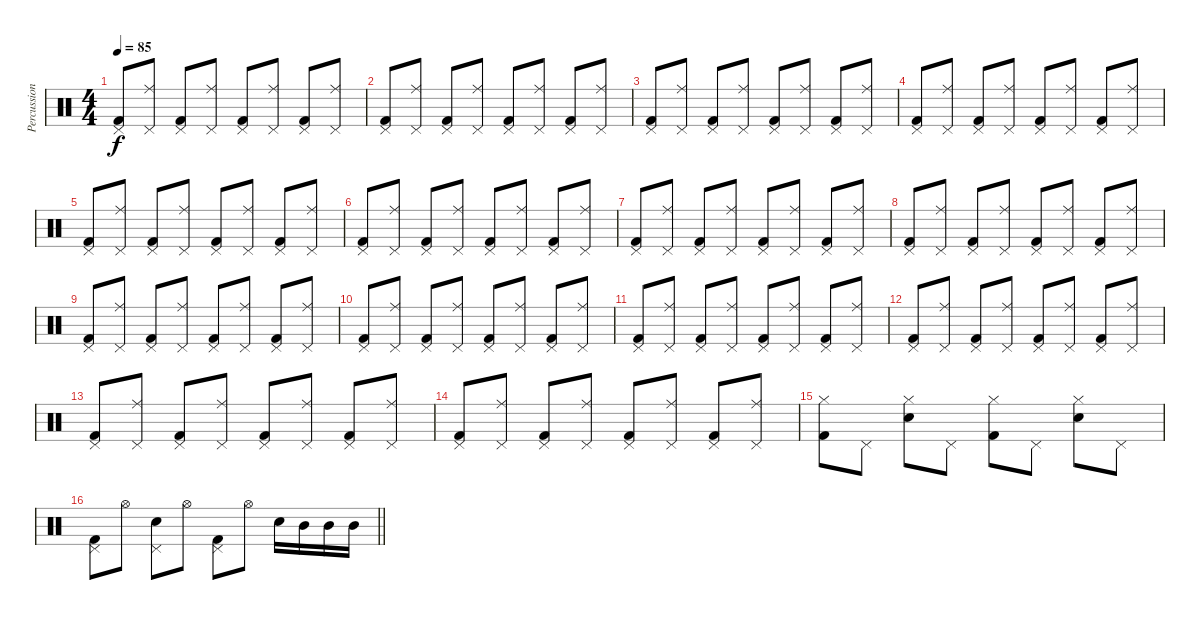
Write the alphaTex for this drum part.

\track ("Percussion" "Percussion") {instrument percussion}
\staff {score}
\articulation defaults
\ts (4 4)
\tempo 85
\clef neutral
\ks c
("Kick (hit) 2" "Pedal Hi-Hat (hit)").8{dy f} ("Pedal Hi-Hat (hit)" "Ride (middle)").8 ("Kick (hit) 2" "Pedal Hi-Hat (hit)").8 ("Pedal Hi-Hat (hit)" "Ride (middle)").8 ("Kick (hit) 2" "Pedal Hi-Hat (hit)").8 ("Pedal Hi-Hat (hit)" "Ride (middle)").8 ("Kick (hit) 2" "Pedal Hi-Hat (hit)").8 ("Pedal Hi-Hat (hit)" "Ride (middle)").8 |
("Kick (hit) 2" "Pedal Hi-Hat (hit)").8 ("Pedal Hi-Hat (hit)" "Ride (middle)").8 ("Kick (hit) 2" "Pedal Hi-Hat (hit)").8 ("Pedal Hi-Hat (hit)" "Ride (middle)").8 ("Kick (hit) 2" "Pedal Hi-Hat (hit)").8 ("Pedal Hi-Hat (hit)" "Ride (middle)").8 ("Kick (hit) 2" "Pedal Hi-Hat (hit)").8 ("Pedal Hi-Hat (hit)" "Ride (middle)").8 |
("Kick (hit) 2" "Pedal Hi-Hat (hit)").8 ("Pedal Hi-Hat (hit)" "Ride (middle)").8 ("Kick (hit) 2" "Pedal Hi-Hat (hit)").8 ("Pedal Hi-Hat (hit)" "Ride (middle)").8 ("Kick (hit) 2" "Pedal Hi-Hat (hit)").8 ("Pedal Hi-Hat (hit)" "Ride (middle)").8 ("Kick (hit) 2" "Pedal Hi-Hat (hit)").8 ("Pedal Hi-Hat (hit)" "Ride (middle)").8 |
("Kick (hit) 2" "Pedal Hi-Hat (hit)").8 ("Pedal Hi-Hat (hit)" "Ride (middle)").8 ("Kick (hit) 2" "Pedal Hi-Hat (hit)").8 ("Pedal Hi-Hat (hit)" "Ride (middle)").8 ("Kick (hit) 2" "Pedal Hi-Hat (hit)").8 ("Pedal Hi-Hat (hit)" "Ride (middle)").8 ("Kick (hit) 2" "Pedal Hi-Hat (hit)").8 ("Pedal Hi-Hat (hit)" "Ride (middle)").8 |
("Kick (hit) 2" "Pedal Hi-Hat (hit)").8 ("Pedal Hi-Hat (hit)" "Ride (middle)").8 ("Kick (hit) 2" "Pedal Hi-Hat (hit)").8 ("Pedal Hi-Hat (hit)" "Ride (middle)").8 ("Kick (hit) 2" "Pedal Hi-Hat (hit)").8 ("Pedal Hi-Hat (hit)" "Ride (middle)").8 ("Kick (hit) 2" "Pedal Hi-Hat (hit)").8 ("Pedal Hi-Hat (hit)" "Ride (middle)").8 |
("Kick (hit) 2" "Pedal Hi-Hat (hit)").8 ("Pedal Hi-Hat (hit)" "Ride (middle)").8 ("Kick (hit) 2" "Pedal Hi-Hat (hit)").8 ("Pedal Hi-Hat (hit)" "Ride (middle)").8 ("Kick (hit) 2" "Pedal Hi-Hat (hit)").8 ("Pedal Hi-Hat (hit)" "Ride (middle)").8 ("Kick (hit) 2" "Pedal Hi-Hat (hit)").8 ("Pedal Hi-Hat (hit)" "Ride (middle)").8 |
("Kick (hit) 2" "Pedal Hi-Hat (hit)").8 ("Pedal Hi-Hat (hit)" "Ride (middle)").8 ("Kick (hit) 2" "Pedal Hi-Hat (hit)").8 ("Pedal Hi-Hat (hit)" "Ride (middle)").8 ("Kick (hit) 2" "Pedal Hi-Hat (hit)").8 ("Pedal Hi-Hat (hit)" "Ride (middle)").8 ("Kick (hit) 2" "Pedal Hi-Hat (hit)").8 ("Pedal Hi-Hat (hit)" "Ride (middle)").8 |
("Kick (hit) 2" "Pedal Hi-Hat (hit)").8 ("Pedal Hi-Hat (hit)" "Ride (middle)").8 ("Kick (hit) 2" "Pedal Hi-Hat (hit)").8 ("Pedal Hi-Hat (hit)" "Ride (middle)").8 ("Kick (hit) 2" "Pedal Hi-Hat (hit)").8 ("Pedal Hi-Hat (hit)" "Ride (middle)").8 ("Kick (hit) 2" "Pedal Hi-Hat (hit)").8 ("Pedal Hi-Hat (hit)" "Ride (middle)").8 |
("Kick (hit) 2" "Pedal Hi-Hat (hit)").8 ("Pedal Hi-Hat (hit)" "Ride (middle)").8 ("Kick (hit) 2" "Pedal Hi-Hat (hit)").8 ("Pedal Hi-Hat (hit)" "Ride (middle)").8 ("Kick (hit) 2" "Pedal Hi-Hat (hit)").8 ("Pedal Hi-Hat (hit)" "Ride (middle)").8 ("Kick (hit) 2" "Pedal Hi-Hat (hit)").8 ("Pedal Hi-Hat (hit)" "Ride (middle)").8 |
("Kick (hit) 2" "Pedal Hi-Hat (hit)").8 ("Pedal Hi-Hat (hit)" "Ride (middle)").8 ("Kick (hit) 2" "Pedal Hi-Hat (hit)").8 ("Pedal Hi-Hat (hit)" "Ride (middle)").8 ("Kick (hit) 2" "Pedal Hi-Hat (hit)").8 ("Pedal Hi-Hat (hit)" "Ride (middle)").8 ("Kick (hit) 2" "Pedal Hi-Hat (hit)").8 ("Pedal Hi-Hat (hit)" "Ride (middle)").8 |
("Kick (hit) 2" "Pedal Hi-Hat (hit)").8 ("Pedal Hi-Hat (hit)" "Ride (middle)").8 ("Kick (hit) 2" "Pedal Hi-Hat (hit)").8 ("Pedal Hi-Hat (hit)" "Ride (middle)").8 ("Kick (hit) 2" "Pedal Hi-Hat (hit)").8 ("Pedal Hi-Hat (hit)" "Ride (middle)").8 ("Kick (hit) 2" "Pedal Hi-Hat (hit)").8 ("Pedal Hi-Hat (hit)" "Ride (middle)").8 |
("Kick (hit) 2" "Pedal Hi-Hat (hit)").8 ("Pedal Hi-Hat (hit)" "Ride (middle)").8 ("Kick (hit) 2" "Pedal Hi-Hat (hit)").8 ("Pedal Hi-Hat (hit)" "Ride (middle)").8 ("Kick (hit) 2" "Pedal Hi-Hat (hit)").8 ("Pedal Hi-Hat (hit)" "Ride (middle)").8 ("Kick (hit) 2" "Pedal Hi-Hat (hit)").8 ("Pedal Hi-Hat (hit)" "Ride (middle)").8 |
("Kick (hit) 2" "Pedal Hi-Hat (hit)").8 ("Pedal Hi-Hat (hit)" "Ride (middle)").8 ("Kick (hit) 2" "Pedal Hi-Hat (hit)").8 ("Pedal Hi-Hat (hit)" "Ride (middle)").8 ("Kick (hit) 2" "Pedal Hi-Hat (hit)").8 ("Pedal Hi-Hat (hit)" "Ride (middle)").8 ("Kick (hit) 2" "Pedal Hi-Hat (hit)").8 ("Pedal Hi-Hat (hit)" "Ride (middle)").8 |
("Kick (hit) 2" "Pedal Hi-Hat (hit)").8 ("Pedal Hi-Hat (hit)" "Ride (middle)").8 ("Kick (hit) 2" "Pedal Hi-Hat (hit)").8 ("Pedal Hi-Hat (hit)" "Ride (middle)").8 ("Kick (hit) 2" "Pedal Hi-Hat (hit)").8 ("Pedal Hi-Hat (hit)" "Ride (middle)").8 ("Kick (hit) 2" "Pedal Hi-Hat (hit)").8 ("Pedal Hi-Hat (hit)" "Ride (middle)").8 |
("Hi-Hat (closed)" "Kick (hit) 2").8 "Pedal Hi-Hat (hit)".8 ("Hi-Hat (closed)" "Snare (hit) 2").8 "Pedal Hi-Hat (hit)".8 ("Hi-Hat (closed)" "Kick (hit) 2").8 "Pedal Hi-Hat (hit)".8 ("Hi-Hat (closed)" "Snare (hit) 2").8 "Pedal Hi-Hat (hit)".8 |
\barLineRight lightlight
("Pedal Hi-Hat (hit)" "Kick (hit) 2").8 "Hi-Hat (open)".8 ("Pedal Hi-Hat (hit)" "Snare (hit) 2").8 "Hi-Hat (open)".8 ("Pedal Hi-Hat (hit)" "Kick (hit) 2").8 "Hi-Hat (open)".8 "Snare (hit) 2".16 "Mid Tom (hit)".16 "Mid Tom (hit)".16 "Mid Tom (hit)".16
